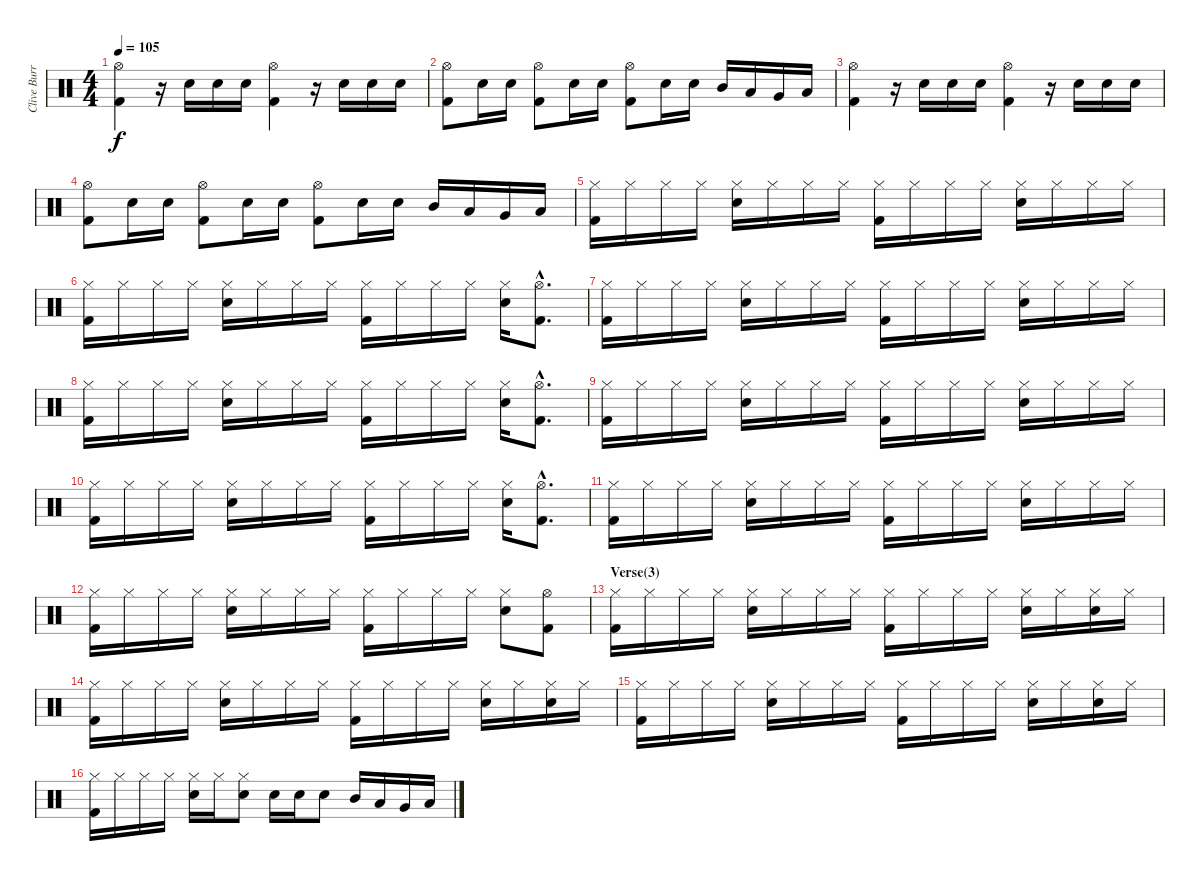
\track ("Clive Burr (Drums)" "Clive Burr") {instrument percussion}
\staff {score}
\articulation defaults
\ts (4 4)
\tempo 105
\clef neutral
\ks c
("Hi-Hat (open)" "Kick (hit) 2").4{dy f} r.16 "Electric Snare (hit)".16 "Electric Snare (hit)".16 "Electric Snare (hit)".16 ("Hi-Hat (open)" "Kick (hit) 2").4 r.16 "Electric Snare (hit)".16 "Electric Snare (hit)".16 "Electric Snare (hit)".16 |
("Hi-Hat (open)" "Kick (hit) 2").8 "Electric Snare (hit)".16 "Electric Snare (hit)".16 ("Hi-Hat (open)" "Kick (hit) 2").8 "Electric Snare (hit)".16 "Electric Snare (hit)".16 ("Hi-Hat (open)" "Kick (hit) 2").8 "Electric Snare (hit)".16 "Electric Snare (hit)".16 "Mid Tom (hit)".16 "Low Tom (hit)".16 "Very Low Tom (hit)".16 "Low Tom (hit)".16 |
("Hi-Hat (open)" "Kick (hit) 2").4 r.16 "Electric Snare (hit)".16 "Electric Snare (hit)".16 "Electric Snare (hit)".16 ("Hi-Hat (open)" "Kick (hit) 2").4 r.16 "Electric Snare (hit)".16 "Electric Snare (hit)".16 "Electric Snare (hit)".16 |
("Hi-Hat (open)" "Kick (hit) 2").8 "Electric Snare (hit)".16 "Electric Snare (hit)".16 ("Hi-Hat (open)" "Kick (hit) 2").8 "Electric Snare (hit)".16 "Electric Snare (hit)".16 ("Hi-Hat (open)" "Kick (hit) 2").8 "Electric Snare (hit)".16 "Electric Snare (hit)".16 "Mid Tom (hit)".16 "Low Tom (hit)".16 "Very Low Tom (hit)".16 "Low Tom (hit)".16 |
\section ("" "")
("Hi-Hat (closed)" "Kick (hit) 2").16 "Hi-Hat (closed)".16 "Hi-Hat (closed)".16 "Hi-Hat (closed)".16 ("Electric Snare (hit)" "Hi-Hat (closed)").16 "Hi-Hat (closed)".16 "Hi-Hat (closed)".16 "Hi-Hat (closed)".16 ("Hi-Hat (closed)" "Kick (hit) 2").16 "Hi-Hat (closed)".16 "Hi-Hat (closed)".16 "Hi-Hat (closed)".16 ("Electric Snare (hit)" "Hi-Hat (closed)").16 "Hi-Hat (closed)".16 "Hi-Hat (closed)".16 "Hi-Hat (closed)".16 |
("Hi-Hat (closed)" "Kick (hit) 2").16 "Hi-Hat (closed)".16 "Hi-Hat (closed)".16 "Hi-Hat (closed)".16 ("Electric Snare (hit)" "Hi-Hat (closed)").16 "Hi-Hat (closed)".16 "Hi-Hat (closed)".16 "Hi-Hat (closed)".16 ("Hi-Hat (closed)" "Kick (hit) 2").16 "Hi-Hat (closed)".16 "Hi-Hat (closed)".16 "Hi-Hat (closed)".16 ("Electric Snare (hit)" "Hi-Hat (closed)").16 ("Hi-Hat (open)"{hac} "Kick (hit) 2"{hac}).8{d} |
("Hi-Hat (closed)" "Kick (hit) 2").16 "Hi-Hat (closed)".16 "Hi-Hat (closed)".16 "Hi-Hat (closed)".16 ("Electric Snare (hit)" "Hi-Hat (closed)").16 "Hi-Hat (closed)".16 "Hi-Hat (closed)".16 "Hi-Hat (closed)".16 ("Hi-Hat (closed)" "Kick (hit) 2").16 "Hi-Hat (closed)".16 "Hi-Hat (closed)".16 "Hi-Hat (closed)".16 ("Electric Snare (hit)" "Hi-Hat (closed)").16 "Hi-Hat (closed)".16 "Hi-Hat (closed)".16 "Hi-Hat (closed)".16 |
("Hi-Hat (closed)" "Kick (hit) 2").16 "Hi-Hat (closed)".16 "Hi-Hat (closed)".16 "Hi-Hat (closed)".16 ("Electric Snare (hit)" "Hi-Hat (closed)").16 "Hi-Hat (closed)".16 "Hi-Hat (closed)".16 "Hi-Hat (closed)".16 ("Hi-Hat (closed)" "Kick (hit) 2").16 "Hi-Hat (closed)".16 "Hi-Hat (closed)".16 "Hi-Hat (closed)".16 ("Electric Snare (hit)" "Hi-Hat (closed)").16 ("Hi-Hat (open)"{hac} "Kick (hit) 2"{hac}).8{d} |
("Hi-Hat (closed)" "Kick (hit) 2").16 "Hi-Hat (closed)".16 "Hi-Hat (closed)".16 "Hi-Hat (closed)".16 ("Electric Snare (hit)" "Hi-Hat (closed)").16 "Hi-Hat (closed)".16 "Hi-Hat (closed)".16 "Hi-Hat (closed)".16 ("Hi-Hat (closed)" "Kick (hit) 2").16 "Hi-Hat (closed)".16 "Hi-Hat (closed)".16 "Hi-Hat (closed)".16 ("Electric Snare (hit)" "Hi-Hat (closed)").16 "Hi-Hat (closed)".16 "Hi-Hat (closed)".16 "Hi-Hat (closed)".16 |
("Hi-Hat (closed)" "Kick (hit) 2").16 "Hi-Hat (closed)".16 "Hi-Hat (closed)".16 "Hi-Hat (closed)".16 ("Electric Snare (hit)" "Hi-Hat (closed)").16 "Hi-Hat (closed)".16 "Hi-Hat (closed)".16 "Hi-Hat (closed)".16 ("Hi-Hat (closed)" "Kick (hit) 2").16 "Hi-Hat (closed)".16 "Hi-Hat (closed)".16 "Hi-Hat (closed)".16 ("Electric Snare (hit)" "Hi-Hat (closed)").16 ("Hi-Hat (open)"{hac} "Kick (hit) 2"{hac}).8{d} |
("Hi-Hat (closed)" "Kick (hit) 2").16 "Hi-Hat (closed)".16 "Hi-Hat (closed)".16 "Hi-Hat (closed)".16 ("Electric Snare (hit)" "Hi-Hat (closed)").16 "Hi-Hat (closed)".16 "Hi-Hat (closed)".16 "Hi-Hat (closed)".16 ("Hi-Hat (closed)" "Kick (hit) 2").16 "Hi-Hat (closed)".16 "Hi-Hat (closed)".16 "Hi-Hat (closed)".16 ("Electric Snare (hit)" "Hi-Hat (closed)").16 "Hi-Hat (closed)".16 "Hi-Hat (closed)".16 "Hi-Hat (closed)".16 |
("Hi-Hat (closed)" "Kick (hit) 2").16 "Hi-Hat (closed)".16 "Hi-Hat (closed)".16 "Hi-Hat (closed)".16 ("Electric Snare (hit)" "Hi-Hat (closed)").16 "Hi-Hat (closed)".16 "Hi-Hat (closed)".16 "Hi-Hat (closed)".16 ("Hi-Hat (closed)" "Kick (hit) 2").16 "Hi-Hat (closed)".16 "Hi-Hat (closed)".16 "Hi-Hat (closed)".16 ("Electric Snare (hit)" "Hi-Hat (closed)").8 ("Hi-Hat (open)" "Kick (hit) 2").8 |
\section ("" "Verse(3)")
("Hi-Hat (closed)" "Kick (hit) 2").16 "Hi-Hat (closed)".16 "Hi-Hat (closed)".16 "Hi-Hat (closed)".16 ("Electric Snare (hit)" "Hi-Hat (closed)").16 "Hi-Hat (closed)".16 "Hi-Hat (closed)".16 "Hi-Hat (closed)".16 ("Hi-Hat (closed)" "Kick (hit) 2").16 "Hi-Hat (closed)".16 "Hi-Hat (closed)".16 "Hi-Hat (closed)".16 ("Electric Snare (hit)" "Hi-Hat (closed)").16 "Hi-Hat (closed)".16 ("Electric Snare (hit)" "Hi-Hat (closed)").16 "Hi-Hat (closed)".16 |
("Hi-Hat (closed)" "Kick (hit) 2").16 "Hi-Hat (closed)".16 "Hi-Hat (closed)".16 "Hi-Hat (closed)".16 ("Electric Snare (hit)" "Hi-Hat (closed)").16 "Hi-Hat (closed)".16 "Hi-Hat (closed)".16 "Hi-Hat (closed)".16 ("Hi-Hat (closed)" "Kick (hit) 2").16 "Hi-Hat (closed)".16 "Hi-Hat (closed)".16 "Hi-Hat (closed)".16 ("Electric Snare (hit)" "Hi-Hat (closed)").16 "Hi-Hat (closed)".16 ("Electric Snare (hit)" "Hi-Hat (closed)").16 "Hi-Hat (closed)".16 |
("Hi-Hat (closed)" "Kick (hit) 2").16 "Hi-Hat (closed)".16 "Hi-Hat (closed)".16 "Hi-Hat (closed)".16 ("Electric Snare (hit)" "Hi-Hat (closed)").16 "Hi-Hat (closed)".16 "Hi-Hat (closed)".16 "Hi-Hat (closed)".16 ("Hi-Hat (closed)" "Kick (hit) 2").16 "Hi-Hat (closed)".16 "Hi-Hat (closed)".16 "Hi-Hat (closed)".16 ("Electric Snare (hit)" "Hi-Hat (closed)").16 "Hi-Hat (closed)".16 ("Electric Snare (hit)" "Hi-Hat (closed)").16 "Hi-Hat (closed)".16 |
("Hi-Hat (closed)" "Kick (hit) 2").16 "Hi-Hat (closed)".16 "Hi-Hat (closed)".16 "Hi-Hat (closed)".16 ("Electric Snare (hit)" "Hi-Hat (closed)").16 "Hi-Hat (closed)".16 ("Electric Snare (hit)" "Hi-Hat (closed)").8 "Electric Snare (hit)".16 "Electric Snare (hit)".16 "Electric Snare (hit)".8 "Mid Tom (hit)".16 "Low Tom (hit)".16 "Very Low Tom (hit)".16 "Low Tom (hit)".16
